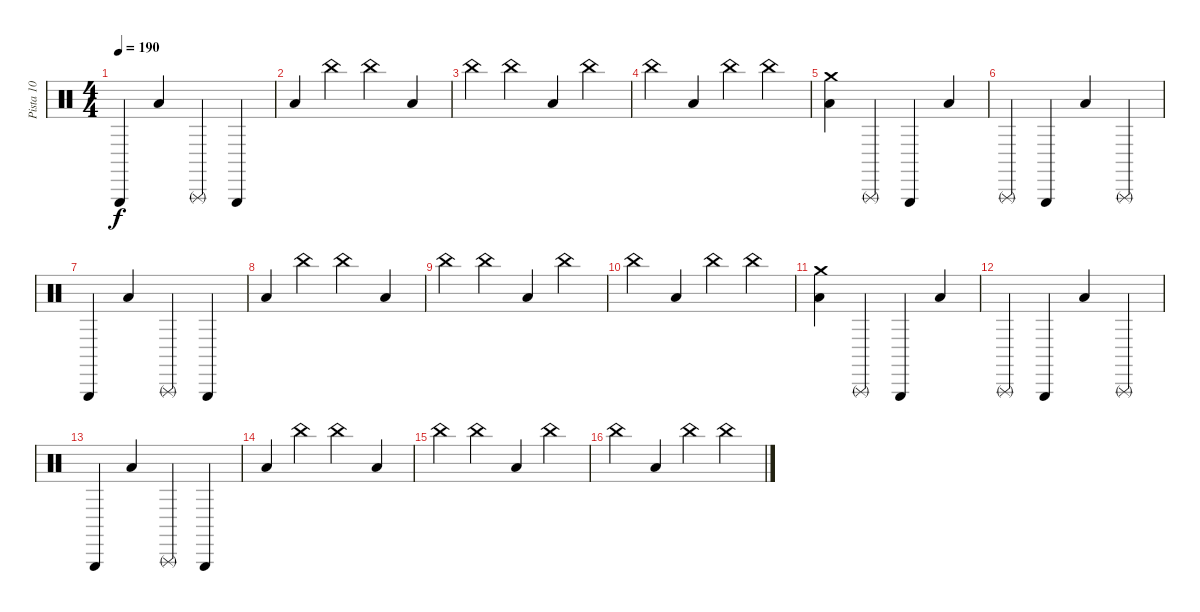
\track ("Pista 10" "Pista 10") {instrument percussion}
\staff {score}
\articulation defaults
\ts (4 4)
\tempo 190
\clef neutral
\ks c "Triangle (hit)".4{dy f} "Low Floor Tom (hit)".4 "Triangle (rnute)".4 "Triangle (hit)".4
|
"Low Floor Tom (hit)".4 "China (hit)".4 "China (hit)".4 "Low Floor Tom (hit)".4 |
"China (hit)".4 "China (hit)".4 "Low Floor Tom (hit)".4 "China (hit)".4 |
"China (hit)".4 "Low Floor Tom (hit)".4 "China (hit)".4 "China (hit)".4 |
("Crash medium (hit)" "Low Floor Tom (hit)").4 "Triangle (rnute)".4 "Triangle (hit)".4 "Low Floor Tom (hit)".4 |
"Triangle (rnute)".4 "Triangle (hit)".4 "Low Floor Tom (hit)".4 "Triangle (rnute)".4 |
"Triangle (hit)".4 "Low Floor Tom (hit)".4 "Triangle (rnute)".4 "Triangle (hit)".4 |
"Low Floor Tom (hit)".4 "China (hit)".4 "China (hit)".4 "Low Floor Tom (hit)".4 |
"China (hit)".4 "China (hit)".4 "Low Floor Tom (hit)".4 "China (hit)".4 |
"China (hit)".4 "Low Floor Tom (hit)".4 "China (hit)".4 "China (hit)".4 |
("Crash medium (hit)" "Low Floor Tom (hit)").4 "Triangle (rnute)".4 "Triangle (hit)".4 "Low Floor Tom (hit)".4 |
"Triangle (rnute)".4 "Triangle (hit)".4 "Low Floor Tom (hit)".4 "Triangle (rnute)".4 |
"Triangle (hit)".4 "Low Floor Tom (hit)".4 "Triangle (rnute)".4 "Triangle (hit)".4 |
"Low Floor Tom (hit)".4 "China (hit)".4 "China (hit)".4 "Low Floor Tom (hit)".4 |
"China (hit)".4 "China (hit)".4 "Low Floor Tom (hit)".4 "China (hit)".4 |
"China (hit)".4 "Low Floor Tom (hit)".4 "China (hit)".4 "China (hit)".4
